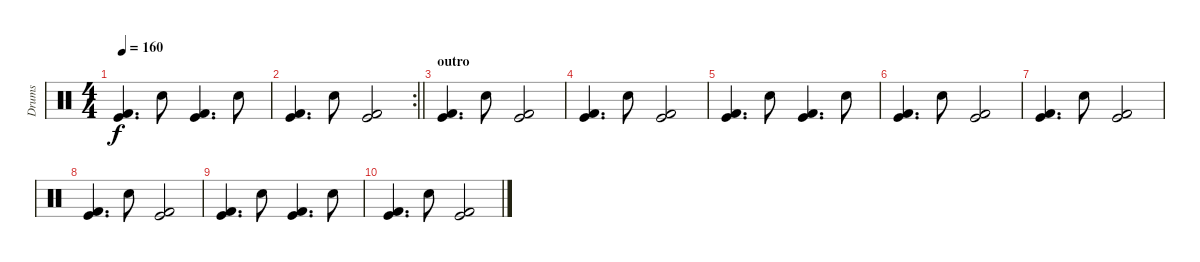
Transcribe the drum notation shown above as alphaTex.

\track ("Drums" "Drums") {instrument percussion}
\staff {score}
\articulation defaults
\ts (4 4)
\tempo 160
\clef neutral
\ks c
("Kick (hit)" "Kick (hit) 2").4{d dy f} "Snare (hit) 2".8 ("Kick (hit)" "Kick (hit) 2").4{d} "Snare (hit) 2".8 |
\rc 2
\barLineRight lightlight
("Kick (hit)" "Kick (hit) 2").4{d} "Snare (hit) 2".8 ("Kick (hit)" "Kick (hit) 2").2 |
\section ("" "outro")
("Kick (hit)" "Kick (hit) 2").4{d} "Snare (hit) 2".8 ("Kick (hit)" "Kick (hit) 2").2 |
("Kick (hit)" "Kick (hit) 2").4{d} "Snare (hit) 2".8 ("Kick (hit)" "Kick (hit) 2").2 |
("Kick (hit)" "Kick (hit) 2").4{d} "Snare (hit) 2".8 ("Kick (hit)" "Kick (hit) 2").4{d} "Snare (hit) 2".8 |
("Kick (hit)" "Kick (hit) 2").4{d} "Snare (hit) 2".8 ("Kick (hit)" "Kick (hit) 2").2 |
("Kick (hit)" "Kick (hit) 2").4{d} "Snare (hit) 2".8 ("Kick (hit)" "Kick (hit) 2").2 |
("Kick (hit)" "Kick (hit) 2").4{d} "Snare (hit) 2".8 ("Kick (hit)" "Kick (hit) 2").2 |
("Kick (hit)" "Kick (hit) 2").4{d} "Snare (hit) 2".8 ("Kick (hit)" "Kick (hit) 2").4{d} "Snare (hit) 2".8 |
("Kick (hit)" "Kick (hit) 2").4{d} "Snare (hit) 2".8 ("Kick (hit)" "Kick (hit) 2").2
